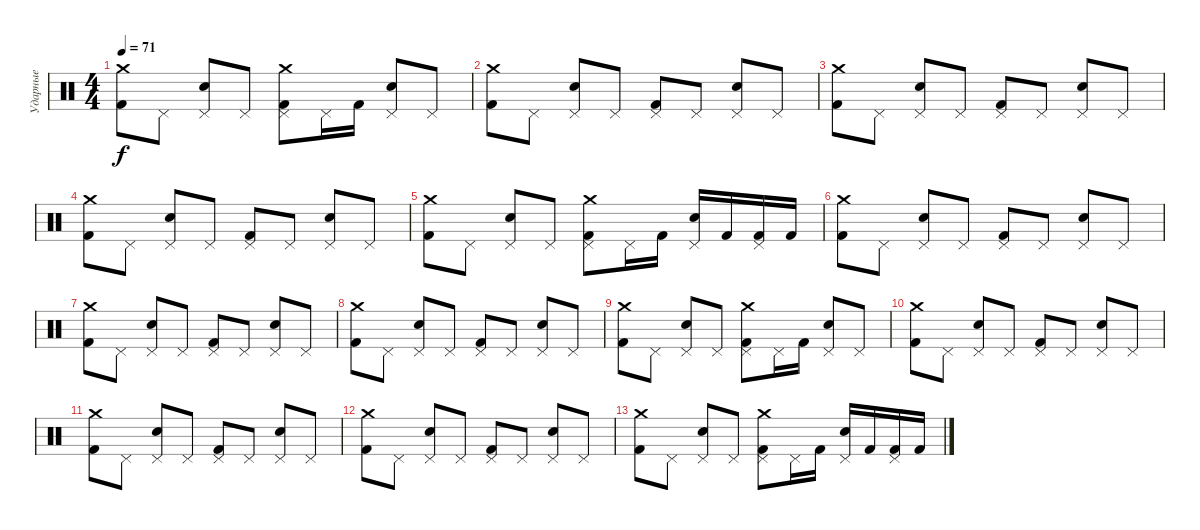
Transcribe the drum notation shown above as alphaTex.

\track ("Ударные" "Ударные") {instrument percussion}
\staff {score}
\articulation defaults
\ts (4 4)
\tempo 71
\clef neutral
\ks c
("Crash medium (hit)" "Kick (hit) 2").8{dy f} "Pedal Hi-Hat (hit)".8 ("Pedal Hi-Hat (hit)" "Snare (hit) 2").8 "Pedal Hi-Hat (hit)".8 ("Crash medium (hit)" "Pedal Hi-Hat (hit)" "Kick (hit) 2").8 "Pedal Hi-Hat (hit)".16 "Kick (hit) 2".16 ("Pedal Hi-Hat (hit)" "Snare (hit) 2").8 "Pedal Hi-Hat (hit)".8 |
("Crash medium (hit)" "Kick (hit) 2").8 "Pedal Hi-Hat (hit)".8 ("Pedal Hi-Hat (hit)" "Snare (hit) 2").8 "Pedal Hi-Hat (hit)".8 ("Pedal Hi-Hat (hit)" "Kick (hit) 2").8 "Pedal Hi-Hat (hit)".8 ("Pedal Hi-Hat (hit)" "Snare (hit) 2").8 "Pedal Hi-Hat (hit)".8 |
("Crash medium (hit)" "Kick (hit) 2").8 "Pedal Hi-Hat (hit)".8 ("Pedal Hi-Hat (hit)" "Snare (hit) 2").8 "Pedal Hi-Hat (hit)".8 ("Pedal Hi-Hat (hit)" "Kick (hit) 2").8 "Pedal Hi-Hat (hit)".8 ("Pedal Hi-Hat (hit)" "Snare (hit) 2").8 "Pedal Hi-Hat (hit)".8 |
("Crash medium (hit)" "Kick (hit) 2").8 "Pedal Hi-Hat (hit)".8 ("Pedal Hi-Hat (hit)" "Snare (hit) 2").8 "Pedal Hi-Hat (hit)".8 ("Pedal Hi-Hat (hit)" "Kick (hit) 2").8 "Pedal Hi-Hat (hit)".8 ("Pedal Hi-Hat (hit)" "Snare (hit) 2").8 "Pedal Hi-Hat (hit)".8 |
("Crash medium (hit)" "Kick (hit) 2").8 "Pedal Hi-Hat (hit)".8 ("Pedal Hi-Hat (hit)" "Snare (hit) 2").8 "Pedal Hi-Hat (hit)".8 ("Crash medium (hit)" "Pedal Hi-Hat (hit)" "Kick (hit) 2").8 "Pedal Hi-Hat (hit)".16 "Kick (hit) 2".16 ("Pedal Hi-Hat (hit)" "Snare (hit) 2").16 "Kick (hit) 2".16 ("Pedal Hi-Hat (hit)" "Kick (hit) 2").16 "Kick (hit) 2".16 |
("Crash medium (hit)" "Kick (hit) 2").8 "Pedal Hi-Hat (hit)".8 ("Pedal Hi-Hat (hit)" "Snare (hit) 2").8 "Pedal Hi-Hat (hit)".8 ("Pedal Hi-Hat (hit)" "Kick (hit) 2").8 "Pedal Hi-Hat (hit)".8 ("Pedal Hi-Hat (hit)" "Snare (hit) 2").8 "Pedal Hi-Hat (hit)".8 |
("Crash medium (hit)" "Kick (hit) 2").8 "Pedal Hi-Hat (hit)".8 ("Pedal Hi-Hat (hit)" "Snare (hit) 2").8 "Pedal Hi-Hat (hit)".8 ("Pedal Hi-Hat (hit)" "Kick (hit) 2").8 "Pedal Hi-Hat (hit)".8 ("Pedal Hi-Hat (hit)" "Snare (hit) 2").8 "Pedal Hi-Hat (hit)".8 |
("Crash medium (hit)" "Kick (hit) 2").8 "Pedal Hi-Hat (hit)".8 ("Pedal Hi-Hat (hit)" "Snare (hit) 2").8 "Pedal Hi-Hat (hit)".8 ("Pedal Hi-Hat (hit)" "Kick (hit) 2").8 "Pedal Hi-Hat (hit)".8 ("Pedal Hi-Hat (hit)" "Snare (hit) 2").8 "Pedal Hi-Hat (hit)".8 |
("Crash medium (hit)" "Kick (hit) 2").8 "Pedal Hi-Hat (hit)".8 ("Pedal Hi-Hat (hit)" "Snare (hit) 2").8 "Pedal Hi-Hat (hit)".8 ("Crash medium (hit)" "Pedal Hi-Hat (hit)" "Kick (hit) 2").8 "Pedal Hi-Hat (hit)".16 "Kick (hit) 2".16 ("Pedal Hi-Hat (hit)" "Snare (hit) 2").8 "Pedal Hi-Hat (hit)".8 |
("Crash medium (hit)" "Kick (hit) 2").8 "Pedal Hi-Hat (hit)".8 ("Pedal Hi-Hat (hit)" "Snare (hit) 2").8 "Pedal Hi-Hat (hit)".8 ("Pedal Hi-Hat (hit)" "Kick (hit) 2").8 "Pedal Hi-Hat (hit)".8 ("Pedal Hi-Hat (hit)" "Snare (hit) 2").8 "Pedal Hi-Hat (hit)".8 |
("Crash medium (hit)" "Kick (hit) 2").8 "Pedal Hi-Hat (hit)".8 ("Pedal Hi-Hat (hit)" "Snare (hit) 2").8 "Pedal Hi-Hat (hit)".8 ("Pedal Hi-Hat (hit)" "Kick (hit) 2").8 "Pedal Hi-Hat (hit)".8 ("Pedal Hi-Hat (hit)" "Snare (hit) 2").8 "Pedal Hi-Hat (hit)".8 |
("Crash medium (hit)" "Kick (hit) 2").8 "Pedal Hi-Hat (hit)".8 ("Pedal Hi-Hat (hit)" "Snare (hit) 2").8 "Pedal Hi-Hat (hit)".8 ("Pedal Hi-Hat (hit)" "Kick (hit) 2").8 "Pedal Hi-Hat (hit)".8 ("Pedal Hi-Hat (hit)" "Snare (hit) 2").8 "Pedal Hi-Hat (hit)".8 |
("Crash medium (hit)" "Kick (hit) 2").8 "Pedal Hi-Hat (hit)".8 ("Pedal Hi-Hat (hit)" "Snare (hit) 2").8 "Pedal Hi-Hat (hit)".8 ("Crash medium (hit)" "Pedal Hi-Hat (hit)" "Kick (hit) 2").8 "Pedal Hi-Hat (hit)".16 "Kick (hit) 2".16 ("Pedal Hi-Hat (hit)" "Snare (hit) 2").16 "Kick (hit) 2".16 ("Pedal Hi-Hat (hit)" "Kick (hit) 2").16 "Kick (hit) 2".16
